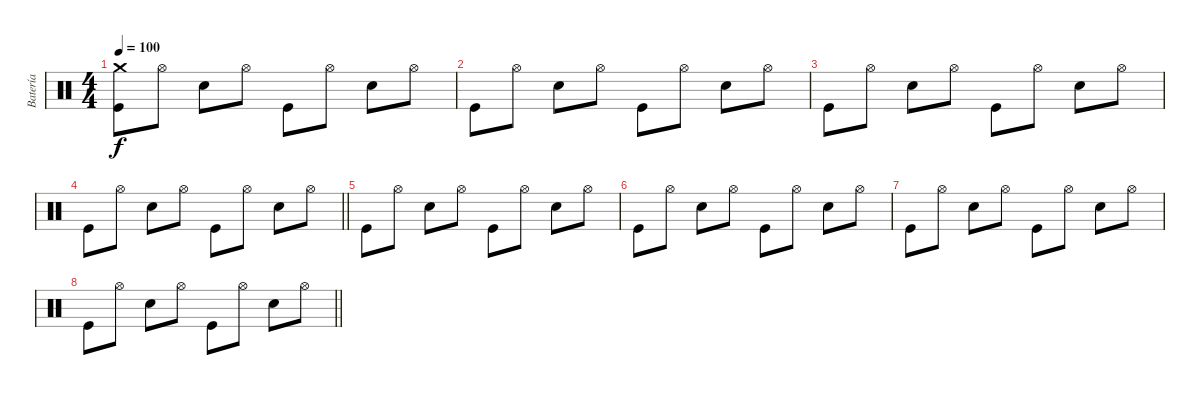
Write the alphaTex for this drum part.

\track ("Batería" "Batería") {instrument percussion}
\staff {score}
\articulation defaults
\ts (4 4)
\section ("" "")
\tempo 100
\clef neutral
\ks c
("Kick (hit)" "Crash medium (hit)").8{dy f} "Hi-Hat (open)".8 "Electric Snare (hit)".8 "Hi-Hat (open)".8 "Kick (hit)".8 "Hi-Hat (open)".8 "Electric Snare (hit)".8 "Hi-Hat (open)".8 |
"Kick (hit)".8 "Hi-Hat (open)".8 "Electric Snare (hit)".8 "Hi-Hat (open)".8 "Kick (hit)".8 "Hi-Hat (open)".8 "Electric Snare (hit)".8 "Hi-Hat (open)".8 |
"Kick (hit)".8 "Hi-Hat (open)".8 "Electric Snare (hit)".8 "Hi-Hat (open)".8 "Kick (hit)".8 "Hi-Hat (open)".8 "Electric Snare (hit)".8 "Hi-Hat (open)".8 |
\barLineRight lightlight "Kick (hit)".8 "Hi-Hat (open)".8 "Electric Snare (hit)".8 "Hi-Hat (open)".8 "Kick (hit)".8 "Hi-Hat (open)".8 "Electric Snare (hit)".8 "Hi-Hat (open)".8
|
"Kick (hit)".8 "Hi-Hat (open)".8 "Electric Snare (hit)".8 "Hi-Hat (open)".8 "Kick (hit)".8 "Hi-Hat (open)".8 "Electric Snare (hit)".8 "Hi-Hat (open)".8 |
"Kick (hit)".8 "Hi-Hat (open)".8 "Electric Snare (hit)".8 "Hi-Hat (open)".8 "Kick (hit)".8 "Hi-Hat (open)".8 "Electric Snare (hit)".8 "Hi-Hat (open)".8 |
"Kick (hit)".8 "Hi-Hat (open)".8 "Electric Snare (hit)".8 "Hi-Hat (open)".8 "Kick (hit)".8 "Hi-Hat (open)".8 "Electric Snare (hit)".8 "Hi-Hat (open)".8 |
\barLineRight lightlight "Kick (hit)".8 "Hi-Hat (open)".8 "Electric Snare (hit)".8 "Hi-Hat (open)".8 "Kick (hit)".8 "Hi-Hat (open)".8 "Electric Snare (hit)".8 "Hi-Hat (open)".8
